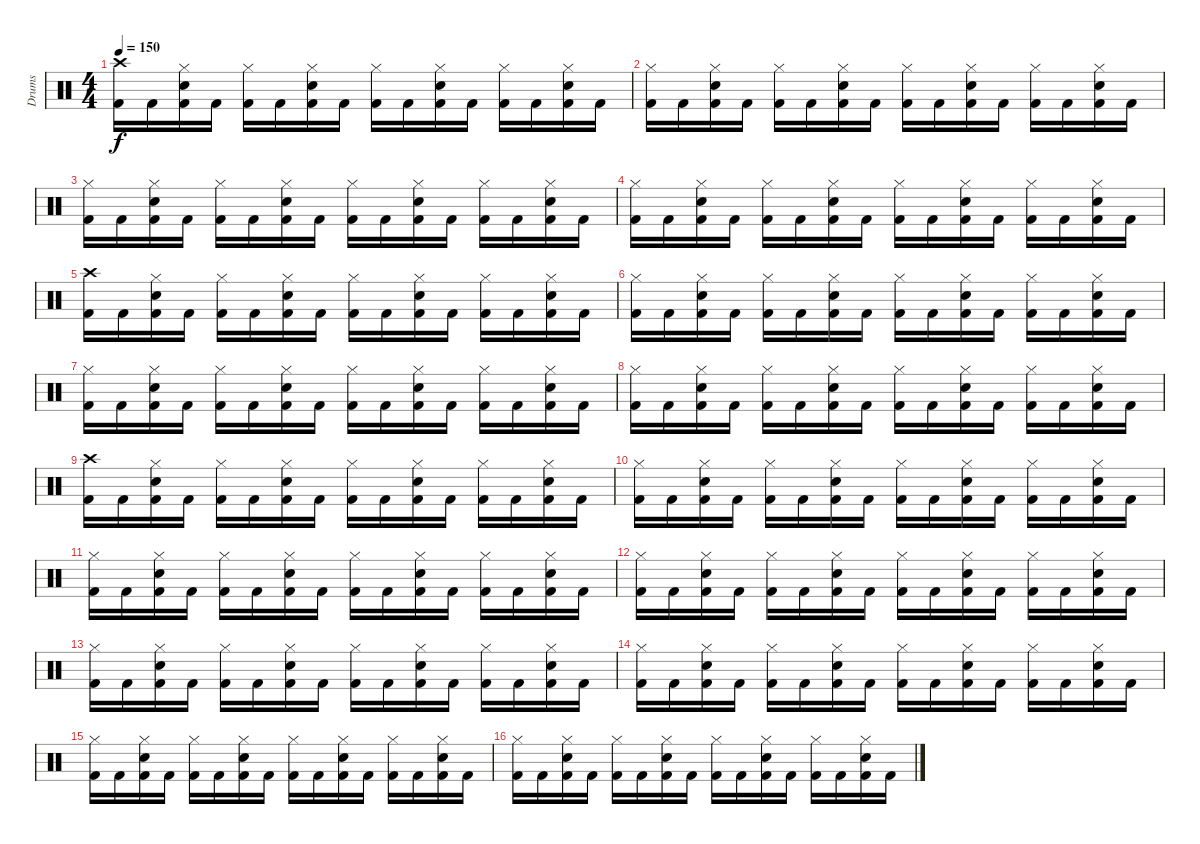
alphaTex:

\track ("Drums" "Drums") {instrument percussion}
\staff {score}
\articulation defaults
\ts (4 4)
\tempo 150
\clef neutral
\ks c
("Crash high (hit)" "Kick (hit) 2").16{dy f} "Kick (hit) 2".16 ("Hi-Hat (closed)" "Electric Snare (hit)" "Kick (hit) 2").16 "Kick (hit) 2".16 ("Hi-Hat (closed)" "Kick (hit) 2").16 "Kick (hit) 2".16 ("Hi-Hat (closed)" "Electric Snare (hit)" "Kick (hit) 2").16 "Kick (hit) 2".16 ("Hi-Hat (closed)" "Kick (hit) 2").16 "Kick (hit) 2".16 ("Hi-Hat (closed)" "Electric Snare (hit)" "Kick (hit) 2").16 "Kick (hit) 2".16 ("Hi-Hat (closed)" "Kick (hit) 2").16 "Kick (hit) 2".16 ("Hi-Hat (closed)" "Electric Snare (hit)" "Kick (hit) 2").16 "Kick (hit) 2".16 |
("Hi-Hat (closed)" "Kick (hit) 2").16 "Kick (hit) 2".16 ("Hi-Hat (closed)" "Electric Snare (hit)" "Kick (hit) 2").16 "Kick (hit) 2".16 ("Hi-Hat (closed)" "Kick (hit) 2").16 "Kick (hit) 2".16 ("Hi-Hat (closed)" "Electric Snare (hit)" "Kick (hit) 2").16 "Kick (hit) 2".16 ("Hi-Hat (closed)" "Kick (hit) 2").16 "Kick (hit) 2".16 ("Hi-Hat (closed)" "Electric Snare (hit)" "Kick (hit) 2").16 "Kick (hit) 2".16 ("Hi-Hat (closed)" "Kick (hit) 2").16 "Kick (hit) 2".16 ("Hi-Hat (closed)" "Electric Snare (hit)" "Kick (hit) 2").16 "Kick (hit) 2".16 |
("Hi-Hat (closed)" "Kick (hit) 2").16 "Kick (hit) 2".16 ("Hi-Hat (closed)" "Electric Snare (hit)" "Kick (hit) 2").16 "Kick (hit) 2".16 ("Hi-Hat (closed)" "Kick (hit) 2").16 "Kick (hit) 2".16 ("Hi-Hat (closed)" "Electric Snare (hit)" "Kick (hit) 2").16 "Kick (hit) 2".16 ("Hi-Hat (closed)" "Kick (hit) 2").16 "Kick (hit) 2".16 ("Hi-Hat (closed)" "Electric Snare (hit)" "Kick (hit) 2").16 "Kick (hit) 2".16 ("Hi-Hat (closed)" "Kick (hit) 2").16 "Kick (hit) 2".16 ("Hi-Hat (closed)" "Electric Snare (hit)" "Kick (hit) 2").16 "Kick (hit) 2".16 |
("Hi-Hat (closed)" "Kick (hit) 2").16 "Kick (hit) 2".16 ("Hi-Hat (closed)" "Electric Snare (hit)" "Kick (hit) 2").16 "Kick (hit) 2".16 ("Hi-Hat (closed)" "Kick (hit) 2").16 "Kick (hit) 2".16 ("Hi-Hat (closed)" "Electric Snare (hit)" "Kick (hit) 2").16 "Kick (hit) 2".16 ("Hi-Hat (closed)" "Kick (hit) 2").16 "Kick (hit) 2".16 ("Hi-Hat (closed)" "Electric Snare (hit)" "Kick (hit) 2").16 "Kick (hit) 2".16 ("Hi-Hat (closed)" "Kick (hit) 2").16 "Kick (hit) 2".16 ("Hi-Hat (closed)" "Electric Snare (hit)" "Kick (hit) 2").16 "Kick (hit) 2".16 |
("Crash high (hit)" "Kick (hit) 2").16 "Kick (hit) 2".16 ("Hi-Hat (closed)" "Electric Snare (hit)" "Kick (hit) 2").16 "Kick (hit) 2".16 ("Hi-Hat (closed)" "Kick (hit) 2").16 "Kick (hit) 2".16 ("Hi-Hat (closed)" "Electric Snare (hit)" "Kick (hit) 2").16 "Kick (hit) 2".16 ("Hi-Hat (closed)" "Kick (hit) 2").16 "Kick (hit) 2".16 ("Hi-Hat (closed)" "Electric Snare (hit)" "Kick (hit) 2").16 "Kick (hit) 2".16 ("Hi-Hat (closed)" "Kick (hit) 2").16 "Kick (hit) 2".16 ("Hi-Hat (closed)" "Electric Snare (hit)" "Kick (hit) 2").16 "Kick (hit) 2".16 |
("Hi-Hat (closed)" "Kick (hit) 2").16 "Kick (hit) 2".16 ("Hi-Hat (closed)" "Electric Snare (hit)" "Kick (hit) 2").16 "Kick (hit) 2".16 ("Hi-Hat (closed)" "Kick (hit) 2").16 "Kick (hit) 2".16 ("Hi-Hat (closed)" "Electric Snare (hit)" "Kick (hit) 2").16 "Kick (hit) 2".16 ("Hi-Hat (closed)" "Kick (hit) 2").16 "Kick (hit) 2".16 ("Hi-Hat (closed)" "Electric Snare (hit)" "Kick (hit) 2").16 "Kick (hit) 2".16 ("Hi-Hat (closed)" "Kick (hit) 2").16 "Kick (hit) 2".16 ("Hi-Hat (closed)" "Electric Snare (hit)" "Kick (hit) 2").16 "Kick (hit) 2".16 |
("Hi-Hat (closed)" "Kick (hit) 2").16 "Kick (hit) 2".16 ("Hi-Hat (closed)" "Electric Snare (hit)" "Kick (hit) 2").16 "Kick (hit) 2".16 ("Hi-Hat (closed)" "Kick (hit) 2").16 "Kick (hit) 2".16 ("Hi-Hat (closed)" "Electric Snare (hit)" "Kick (hit) 2").16 "Kick (hit) 2".16 ("Hi-Hat (closed)" "Kick (hit) 2").16 "Kick (hit) 2".16 ("Hi-Hat (closed)" "Electric Snare (hit)" "Kick (hit) 2").16 "Kick (hit) 2".16 ("Hi-Hat (closed)" "Kick (hit) 2").16 "Kick (hit) 2".16 ("Hi-Hat (closed)" "Electric Snare (hit)" "Kick (hit) 2").16 "Kick (hit) 2".16 |
("Hi-Hat (closed)" "Kick (hit) 2").16 "Kick (hit) 2".16 ("Hi-Hat (closed)" "Electric Snare (hit)" "Kick (hit) 2").16 "Kick (hit) 2".16 ("Hi-Hat (closed)" "Kick (hit) 2").16 "Kick (hit) 2".16 ("Hi-Hat (closed)" "Electric Snare (hit)" "Kick (hit) 2").16 "Kick (hit) 2".16 ("Hi-Hat (closed)" "Kick (hit) 2").16 "Kick (hit) 2".16 ("Hi-Hat (closed)" "Electric Snare (hit)" "Kick (hit) 2").16 "Kick (hit) 2".16 ("Hi-Hat (closed)" "Kick (hit) 2").16 "Kick (hit) 2".16 ("Hi-Hat (closed)" "Electric Snare (hit)" "Kick (hit) 2").16 "Kick (hit) 2".16 |
("Crash high (hit)" "Kick (hit) 2").16 "Kick (hit) 2".16 ("Hi-Hat (closed)" "Electric Snare (hit)" "Kick (hit) 2").16 "Kick (hit) 2".16 ("Hi-Hat (closed)" "Kick (hit) 2").16 "Kick (hit) 2".16 ("Hi-Hat (closed)" "Electric Snare (hit)" "Kick (hit) 2").16 "Kick (hit) 2".16 ("Hi-Hat (closed)" "Kick (hit) 2").16 "Kick (hit) 2".16 ("Hi-Hat (closed)" "Electric Snare (hit)" "Kick (hit) 2").16 "Kick (hit) 2".16 ("Hi-Hat (closed)" "Kick (hit) 2").16 "Kick (hit) 2".16 ("Hi-Hat (closed)" "Electric Snare (hit)" "Kick (hit) 2").16 "Kick (hit) 2".16 |
("Hi-Hat (closed)" "Kick (hit) 2").16 "Kick (hit) 2".16 ("Hi-Hat (closed)" "Electric Snare (hit)" "Kick (hit) 2").16 "Kick (hit) 2".16 ("Hi-Hat (closed)" "Kick (hit) 2").16 "Kick (hit) 2".16 ("Hi-Hat (closed)" "Electric Snare (hit)" "Kick (hit) 2").16 "Kick (hit) 2".16 ("Hi-Hat (closed)" "Kick (hit) 2").16 "Kick (hit) 2".16 ("Hi-Hat (closed)" "Electric Snare (hit)" "Kick (hit) 2").16 "Kick (hit) 2".16 ("Hi-Hat (closed)" "Kick (hit) 2").16 "Kick (hit) 2".16 ("Hi-Hat (closed)" "Electric Snare (hit)" "Kick (hit) 2").16 "Kick (hit) 2".16 |
("Hi-Hat (closed)" "Kick (hit) 2").16 "Kick (hit) 2".16 ("Hi-Hat (closed)" "Electric Snare (hit)" "Kick (hit) 2").16 "Kick (hit) 2".16 ("Hi-Hat (closed)" "Kick (hit) 2").16 "Kick (hit) 2".16 ("Hi-Hat (closed)" "Electric Snare (hit)" "Kick (hit) 2").16 "Kick (hit) 2".16 ("Hi-Hat (closed)" "Kick (hit) 2").16 "Kick (hit) 2".16 ("Hi-Hat (closed)" "Electric Snare (hit)" "Kick (hit) 2").16 "Kick (hit) 2".16 ("Hi-Hat (closed)" "Kick (hit) 2").16 "Kick (hit) 2".16 ("Hi-Hat (closed)" "Electric Snare (hit)" "Kick (hit) 2").16 "Kick (hit) 2".16 |
("Hi-Hat (closed)" "Kick (hit) 2").16 "Kick (hit) 2".16 ("Hi-Hat (closed)" "Electric Snare (hit)" "Kick (hit) 2").16 "Kick (hit) 2".16 ("Hi-Hat (closed)" "Kick (hit) 2").16 "Kick (hit) 2".16 ("Hi-Hat (closed)" "Electric Snare (hit)" "Kick (hit) 2").16 "Kick (hit) 2".16 ("Hi-Hat (closed)" "Kick (hit) 2").16 "Kick (hit) 2".16 ("Hi-Hat (closed)" "Electric Snare (hit)" "Kick (hit) 2").16 "Kick (hit) 2".16 ("Hi-Hat (closed)" "Kick (hit) 2").16 "Kick (hit) 2".16 ("Hi-Hat (closed)" "Electric Snare (hit)" "Kick (hit) 2").16 "Kick (hit) 2".16 |
("Hi-Hat (closed)" "Kick (hit) 2").16 "Kick (hit) 2".16 ("Hi-Hat (closed)" "Electric Snare (hit)" "Kick (hit) 2").16 "Kick (hit) 2".16 ("Hi-Hat (closed)" "Kick (hit) 2").16 "Kick (hit) 2".16 ("Hi-Hat (closed)" "Electric Snare (hit)" "Kick (hit) 2").16 "Kick (hit) 2".16 ("Hi-Hat (closed)" "Kick (hit) 2").16 "Kick (hit) 2".16 ("Hi-Hat (closed)" "Electric Snare (hit)" "Kick (hit) 2").16 "Kick (hit) 2".16 ("Hi-Hat (closed)" "Kick (hit) 2").16 "Kick (hit) 2".16 ("Hi-Hat (closed)" "Electric Snare (hit)" "Kick (hit) 2").16 "Kick (hit) 2".16 |
("Hi-Hat (closed)" "Kick (hit) 2").16 "Kick (hit) 2".16 ("Hi-Hat (closed)" "Electric Snare (hit)" "Kick (hit) 2").16 "Kick (hit) 2".16 ("Hi-Hat (closed)" "Kick (hit) 2").16 "Kick (hit) 2".16 ("Hi-Hat (closed)" "Electric Snare (hit)" "Kick (hit) 2").16 "Kick (hit) 2".16 ("Hi-Hat (closed)" "Kick (hit) 2").16 "Kick (hit) 2".16 ("Hi-Hat (closed)" "Electric Snare (hit)" "Kick (hit) 2").16 "Kick (hit) 2".16 ("Hi-Hat (closed)" "Kick (hit) 2").16 "Kick (hit) 2".16 ("Hi-Hat (closed)" "Electric Snare (hit)" "Kick (hit) 2").16 "Kick (hit) 2".16 |
("Hi-Hat (closed)" "Kick (hit) 2").16 "Kick (hit) 2".16 ("Hi-Hat (closed)" "Electric Snare (hit)" "Kick (hit) 2").16 "Kick (hit) 2".16 ("Hi-Hat (closed)" "Kick (hit) 2").16 "Kick (hit) 2".16 ("Hi-Hat (closed)" "Electric Snare (hit)" "Kick (hit) 2").16 "Kick (hit) 2".16 ("Hi-Hat (closed)" "Kick (hit) 2").16 "Kick (hit) 2".16 ("Hi-Hat (closed)" "Electric Snare (hit)" "Kick (hit) 2").16 "Kick (hit) 2".16 ("Hi-Hat (closed)" "Kick (hit) 2").16 "Kick (hit) 2".16 ("Hi-Hat (closed)" "Electric Snare (hit)" "Kick (hit) 2").16 "Kick (hit) 2".16 |
("Hi-Hat (closed)" "Kick (hit) 2").16 "Kick (hit) 2".16 ("Hi-Hat (closed)" "Electric Snare (hit)" "Kick (hit) 2").16 "Kick (hit) 2".16 ("Hi-Hat (closed)" "Kick (hit) 2").16 "Kick (hit) 2".16 ("Hi-Hat (closed)" "Electric Snare (hit)" "Kick (hit) 2").16 "Kick (hit) 2".16 ("Hi-Hat (closed)" "Kick (hit) 2").16 "Kick (hit) 2".16 ("Hi-Hat (closed)" "Electric Snare (hit)" "Kick (hit) 2").16 "Kick (hit) 2".16 ("Hi-Hat (closed)" "Kick (hit) 2").16 "Kick (hit) 2".16 ("Hi-Hat (closed)" "Electric Snare (hit)" "Kick (hit) 2").16 "Kick (hit) 2".16
